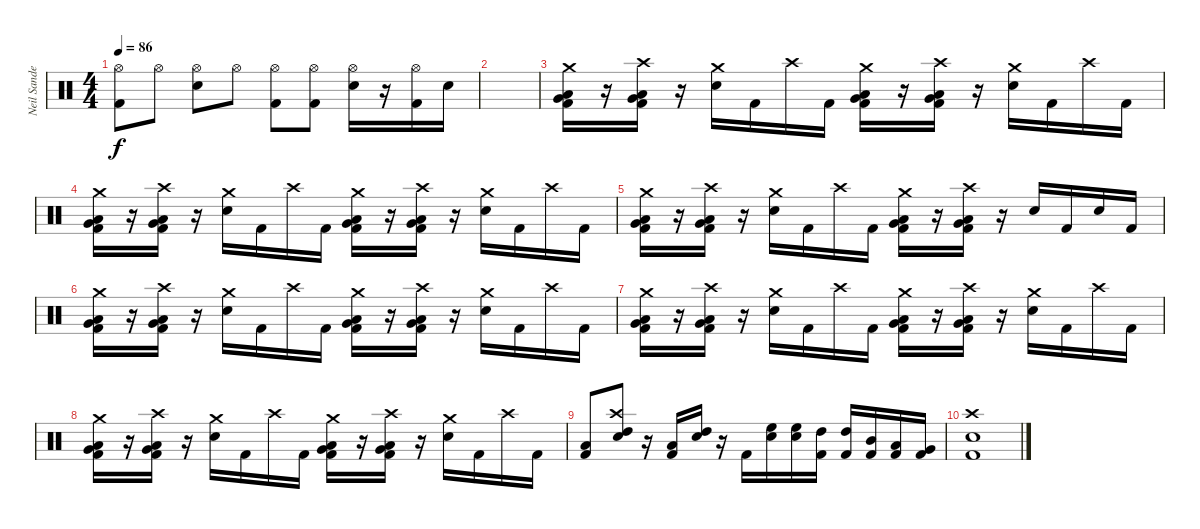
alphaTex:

\track ("Neil Sanderson" "Neil Sande") {instrument percussion}
\staff {score}
\articulation defaults
\ts (4 4)
\tempo 86
\clef neutral
\ks c
("Kick (hit) 2" "Hi-Hat (open)").8{dy f} "Hi-Hat (open)".8 ("Snare (hit) 2" "Hi-Hat (open)").8 "Hi-Hat (open)".8 ("Kick (hit) 2" "Hi-Hat (open)").8 ("Kick (hit) 2" "Hi-Hat (open)").8 ("Snare (hit) 2" "Hi-Hat (open)").16 r.16 ("Kick (hit) 2" "Hi-Hat (open)").16 "Snare (hit) 2".16 |
|
("Low Floor Tom (hit)" "Very Low Tom (hit)" "Kick (hit) 2" "Crash medium (hit)").16 r.16 ("Low Floor Tom (hit)" "Very Low Tom (hit)" "Kick (hit) 2" "Crash high (hit)").16 r.16 ("Snare (hit) 2" "Crash medium (hit)").16 "Kick (hit) 2".16 "Crash high (hit)".16 "Kick (hit) 2".16 ("Low Floor Tom (hit)" "Very Low Tom (hit)" "Kick (hit) 2" "Crash medium (hit)").16 r.16 ("Low Floor Tom (hit)" "Very Low Tom (hit)" "Kick (hit) 2" "Crash high (hit)").16 r.16 ("Snare (hit) 2" "Crash medium (hit)").16 "Kick (hit) 2".16 "Crash high (hit)".16 "Kick (hit) 2".16 |
("Low Floor Tom (hit)" "Very Low Tom (hit)" "Kick (hit) 2" "Crash medium (hit)").16 r.16 ("Low Floor Tom (hit)" "Very Low Tom (hit)" "Kick (hit) 2" "Crash high (hit)").16 r.16 ("Snare (hit) 2" "Crash medium (hit)").16 "Kick (hit) 2".16 "Crash high (hit)".16 "Kick (hit) 2".16 ("Low Floor Tom (hit)" "Very Low Tom (hit)" "Kick (hit) 2" "Crash medium (hit)").16 r.16 ("Low Floor Tom (hit)" "Very Low Tom (hit)" "Kick (hit) 2" "Crash high (hit)").16 r.16 ("Snare (hit) 2" "Crash medium (hit)").16 "Kick (hit) 2".16 "Crash high (hit)".16 "Kick (hit) 2".16 |
("Low Floor Tom (hit)" "Very Low Tom (hit)" "Kick (hit) 2" "Crash medium (hit)").16 r.16 ("Low Floor Tom (hit)" "Very Low Tom (hit)" "Kick (hit) 2" "Crash high (hit)").16 r.16 ("Snare (hit) 2" "Crash medium (hit)").16 "Kick (hit) 2".16 "Crash high (hit)".16 "Kick (hit) 2".16 ("Low Floor Tom (hit)" "Very Low Tom (hit)" "Kick (hit) 2" "Crash medium (hit)").16 r.16 ("Low Floor Tom (hit)" "Very Low Tom (hit)" "Kick (hit) 2" "Crash high (hit)").16 r.16 "Snare (hit) 2".16 "Kick (hit) 2".16 "Snare (hit) 2".16 "Kick (hit) 2".16 |
("Low Floor Tom (hit)" "Very Low Tom (hit)" "Kick (hit) 2" "Crash medium (hit)").16 r.16 ("Low Floor Tom (hit)" "Very Low Tom (hit)" "Kick (hit) 2" "Crash high (hit)").16 r.16 ("Snare (hit) 2" "Crash medium (hit)").16 "Kick (hit) 2".16 "Crash high (hit)".16 "Kick (hit) 2".16 ("Low Floor Tom (hit)" "Very Low Tom (hit)" "Kick (hit) 2" "Crash medium (hit)").16 r.16 ("Low Floor Tom (hit)" "Very Low Tom (hit)" "Kick (hit) 2" "Crash high (hit)").16 r.16 ("Snare (hit) 2" "Crash medium (hit)").16 "Kick (hit) 2".16 "Crash high (hit)".16 "Kick (hit) 2".16 |
("Low Floor Tom (hit)" "Very Low Tom (hit)" "Kick (hit) 2" "Crash medium (hit)").16 r.16 ("Low Floor Tom (hit)" "Very Low Tom (hit)" "Kick (hit) 2" "Crash high (hit)").16 r.16 ("Snare (hit) 2" "Crash medium (hit)").16 "Kick (hit) 2".16 "Crash high (hit)".16 "Kick (hit) 2".16 ("Low Floor Tom (hit)" "Very Low Tom (hit)" "Kick (hit) 2" "Crash medium (hit)").16 r.16 ("Low Floor Tom (hit)" "Very Low Tom (hit)" "Kick (hit) 2" "Crash high (hit)").16 r.16 ("Snare (hit) 2" "Crash medium (hit)").16 "Kick (hit) 2".16 "Crash high (hit)".16 "Kick (hit) 2".16 |
("Low Floor Tom (hit)" "Very Low Tom (hit)" "Kick (hit) 2" "Crash medium (hit)").16 r.16 ("Low Floor Tom (hit)" "Very Low Tom (hit)" "Kick (hit) 2" "Crash high (hit)").16 r.16 ("Snare (hit) 2" "Crash medium (hit)").16 "Kick (hit) 2".16 "Crash high (hit)".16 "Kick (hit) 2".16 ("Low Floor Tom (hit)" "Very Low Tom (hit)" "Kick (hit) 2" "Crash medium (hit)").16 r.16 ("Low Floor Tom (hit)" "Very Low Tom (hit)" "Kick (hit) 2" "Crash high (hit)").16 r.16 ("Snare (hit) 2" "Crash medium (hit)").16 "Kick (hit) 2".16 "Crash high (hit)".16 "Kick (hit) 2".16 |
("Kick (hit) 2" "Low Tom (hit)").8 ("Snare (hit) 2" "High Tom (hit)" "Crash high (hit)").8 r.16 ("Kick (hit) 2" "Low Tom (hit)").16 ("Snare (hit) 2" "High Tom (hit)").16 r.16 "Kick (hit) 2".16 ("Snare (hit) 2" "High Floor Tom (hit)").16 ("Snare (hit) 2" "High Floor Tom (hit)").16 ("Kick (hit) 2" "High Tom (hit)").16 ("Kick (hit) 2" "High Tom (hit)").16 ("Kick (hit) 2" "Mid Tom (hit)").16 ("Kick (hit) 2" "Low Tom (hit)").16 ("Kick (hit) 2" "Very Low Tom (hit)").16 |
("Snare (hit) 2" "Kick (hit) 2" "Crash high (hit)").1
